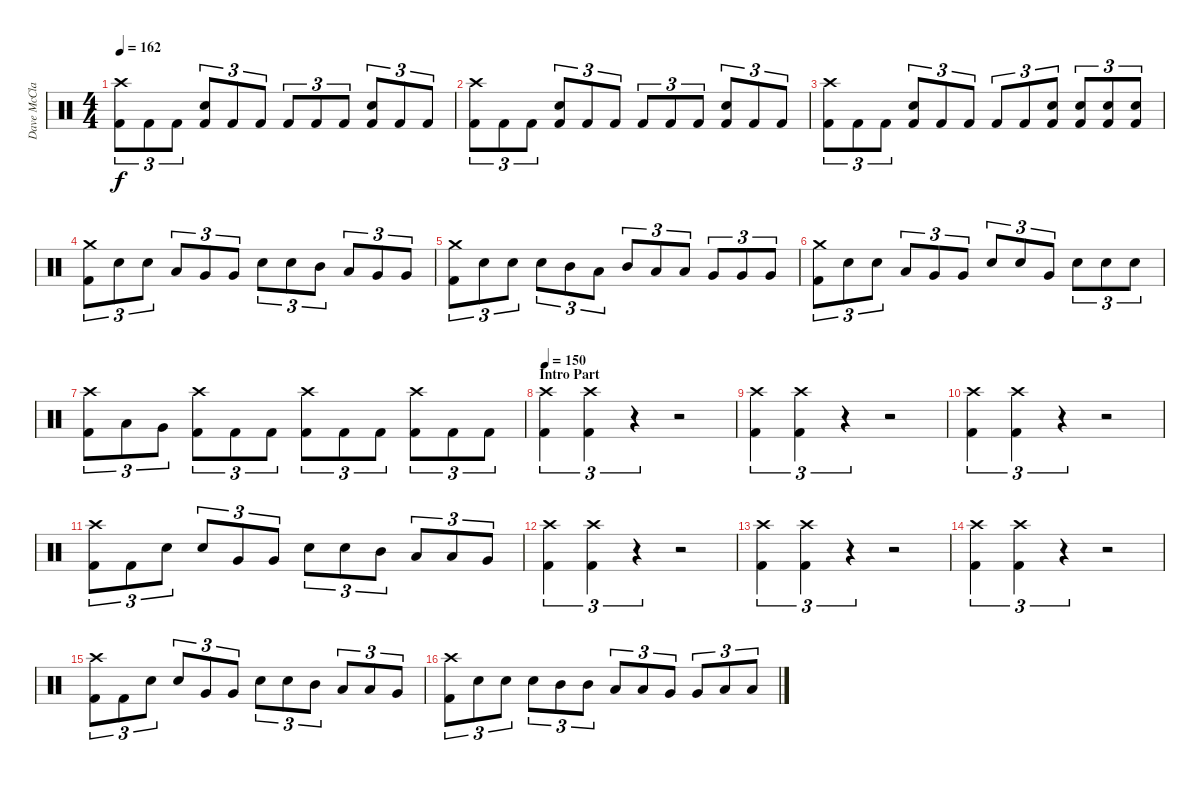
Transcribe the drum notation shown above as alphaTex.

\track ("Dave McClain" "Dave McCla") {instrument percussion}
\staff {score}
\articulation defaults
\ts (4 4)
\tempo 162
\clef neutral
\ks c
("Crash high (hit)" "Kick (hit) 2").8{tu (3 2) dy f} "Kick (hit) 2".8{tu (3 2)} "Kick (hit) 2".8{tu (3 2)} ("Electric Snare (hit)" "Kick (hit) 2").8{tu (3 2)} "Kick (hit) 2".8{tu (3 2)} "Kick (hit) 2".8{tu (3 2)} "Kick (hit) 2".8{tu (3 2)} "Kick (hit) 2".8{tu (3 2)} "Kick (hit) 2".8{tu (3 2)} ("Electric Snare (hit)" "Kick (hit) 2").8{tu (3 2)} "Kick (hit) 2".8{tu (3 2)} "Kick (hit) 2".8{tu (3 2)} |
("Crash high (hit)" "Kick (hit) 2").8{tu (3 2)} "Kick (hit) 2".8{tu (3 2)} "Kick (hit) 2".8{tu (3 2)} ("Electric Snare (hit)" "Kick (hit) 2").8{tu (3 2)} "Kick (hit) 2".8{tu (3 2)} "Kick (hit) 2".8{tu (3 2)} "Kick (hit) 2".8{tu (3 2)} "Kick (hit) 2".8{tu (3 2)} "Kick (hit) 2".8{tu (3 2)} ("Electric Snare (hit)" "Kick (hit) 2").8{tu (3 2)} "Kick (hit) 2".8{tu (3 2)} "Kick (hit) 2".8{tu (3 2)} |
("Crash high (hit)" "Kick (hit) 2").8{tu (3 2)} "Kick (hit) 2".8{tu (3 2)} "Kick (hit) 2".8{tu (3 2)} ("Electric Snare (hit)" "Kick (hit) 2").8{tu (3 2)} "Kick (hit) 2".8{tu (3 2)} "Kick (hit) 2".8{tu (3 2)} "Kick (hit) 2".8{tu (3 2)} "Kick (hit) 2".8{tu (3 2)} ("Electric Snare (hit)" "Kick (hit) 2").8{tu (3 2)} ("Electric Snare (hit)" "Kick (hit) 2").8{tu (3 2)} ("Electric Snare (hit)" "Kick (hit) 2").8{tu (3 2)} ("Electric Snare (hit)" "Kick (hit) 2").8{tu (3 2)} |
("Crash medium (hit)" "Kick (hit) 2").8{tu (3 2)} "Electric Snare (hit)".8{tu (3 2)} "Electric Snare (hit)".8{tu (3 2)} "Low Tom (hit)".8{tu (3 2)} "Very Low Tom (hit)".8{tu (3 2)} "Very Low Tom (hit)".8{tu (3 2)} "Electric Snare (hit)".8{tu (3 2)} "Electric Snare (hit)".8{tu (3 2)} "Mid Tom (hit)".8{tu (3 2)} "Low Tom (hit)".8{tu (3 2)} "Very Low Tom (hit)".8{tu (3 2)} "Very Low Tom (hit)".8{tu (3 2)} |
("Crash medium (hit)" "Kick (hit) 2").8{tu (3 2)} "Electric Snare (hit)".8{tu (3 2)} "Electric Snare (hit)".8{tu (3 2)} "Electric Snare (hit)".8{tu (3 2)} "Mid Tom (hit)".8{tu (3 2)} "Low Tom (hit)".8{tu (3 2)} "Mid Tom (hit)".8{tu (3 2)} "Low Tom (hit)".8{tu (3 2)} "Low Tom (hit)".8{tu (3 2)} "Very Low Tom (hit)".8{tu (3 2)} "Very Low Tom (hit)".8{tu (3 2)} "Very Low Tom (hit)".8{tu (3 2)} |
("Crash medium (hit)" "Kick (hit) 2").8{tu (3 2)} "Electric Snare (hit)".8{tu (3 2)} "Electric Snare (hit)".8{tu (3 2)} "Low Tom (hit)".8{tu (3 2)} "Very Low Tom (hit)".8{tu (3 2)} "Very Low Tom (hit)".8{tu (3 2)} "Electric Snare (hit)".8{tu (3 2)} "Electric Snare (hit)".8{tu (3 2)} "Very Low Tom (hit)".8{tu (3 2)} "Electric Snare (hit)".8{tu (3 2)} "Electric Snare (hit)".8{tu (3 2)} "Electric Snare (hit)".8{tu (3 2)} |
("Crash high (hit)" "Kick (hit) 2").8{tu (3 2)} "Low Tom (hit)".8{tu (3 2)} "Very Low Tom (hit)".8{tu (3 2)} ("Crash high (hit)" "Kick (hit) 2").8{tu (3 2)} "Kick (hit) 2".8{tu (3 2)} "Kick (hit) 2".8{tu (3 2)} ("Crash high (hit)" "Kick (hit) 2").8{tu (3 2)} "Kick (hit) 2".8{tu (3 2)} "Kick (hit) 2".8{tu (3 2)} ("Crash high (hit)" "Kick (hit) 2").8{tu (3 2)} "Kick (hit) 2".8{tu (3 2)} "Kick (hit) 2".8{tu (3 2)} |
\section ("" "Intro Part")
\tempo 150
("Crash high (hit)" "Kick (hit) 2").4{tu (3 2)} ("Crash high (hit)" "Kick (hit) 2").4{tu (3 2)} r.4{tu (3 2)} r.2 |
("Crash high (hit)" "Kick (hit) 2").4{tu (3 2)} ("Crash high (hit)" "Kick (hit) 2").4{tu (3 2)} r.4{tu (3 2)} r.2 |
("Crash high (hit)" "Kick (hit) 2").4{tu (3 2)} ("Crash high (hit)" "Kick (hit) 2").4{tu (3 2)} r.4{tu (3 2)} r.2 |
("Crash high (hit)" "Kick (hit) 2").8{tu (3 2)} "Kick (hit) 2".8{tu (3 2)} "Electric Snare (hit)".8{tu (3 2)} "Electric Snare (hit)".8{tu (3 2)} "Very Low Tom (hit)".8{tu (3 2)} "Very Low Tom (hit)".8{tu (3 2)} "Electric Snare (hit)".8{tu (3 2)} "Electric Snare (hit)".8{tu (3 2)} "Mid Tom (hit)".8{tu (3 2)} "Low Tom (hit)".8{tu (3 2)} "Low Tom (hit)".8{tu (3 2)} "Very Low Tom (hit)".8{tu (3 2)} |
("Crash high (hit)" "Kick (hit) 2").4{tu (3 2)} ("Crash high (hit)" "Kick (hit) 2").4{tu (3 2)} r.4{tu (3 2)} r.2 |
("Crash high (hit)" "Kick (hit) 2").4{tu (3 2)} ("Crash high (hit)" "Kick (hit) 2").4{tu (3 2)} r.4{tu (3 2)} r.2 |
("Crash high (hit)" "Kick (hit) 2").4{tu (3 2)} ("Crash high (hit)" "Kick (hit) 2").4{tu (3 2)} r.4{tu (3 2)} r.2 |
("Crash high (hit)" "Kick (hit) 2").8{tu (3 2)} "Kick (hit) 2".8{tu (3 2)} "Electric Snare (hit)".8{tu (3 2)} "Electric Snare (hit)".8{tu (3 2)} "Very Low Tom (hit)".8{tu (3 2)} "Very Low Tom (hit)".8{tu (3 2)} "Electric Snare (hit)".8{tu (3 2)} "Electric Snare (hit)".8{tu (3 2)} "Mid Tom (hit)".8{tu (3 2)} "Low Tom (hit)".8{tu (3 2)} "Low Tom (hit)".8{tu (3 2)} "Very Low Tom (hit)".8{tu (3 2)} |
("Crash high (hit)" "Kick (hit) 2").8{tu (3 2)} "Electric Snare (hit)".8{tu (3 2)} "Electric Snare (hit)".8{tu (3 2)} "Electric Snare (hit)".8{tu (3 2)} "Mid Tom (hit)".8{tu (3 2)} "Mid Tom (hit)".8{tu (3 2)} "Low Tom (hit)".8{tu (3 2)} "Low Tom (hit)".8{tu (3 2)} "Very Low Tom (hit)".8{tu (3 2)} "Very Low Tom (hit)".8{tu (3 2)} "Low Tom (hit)".8{tu (3 2)} "Low Tom (hit)".8{tu (3 2)}
